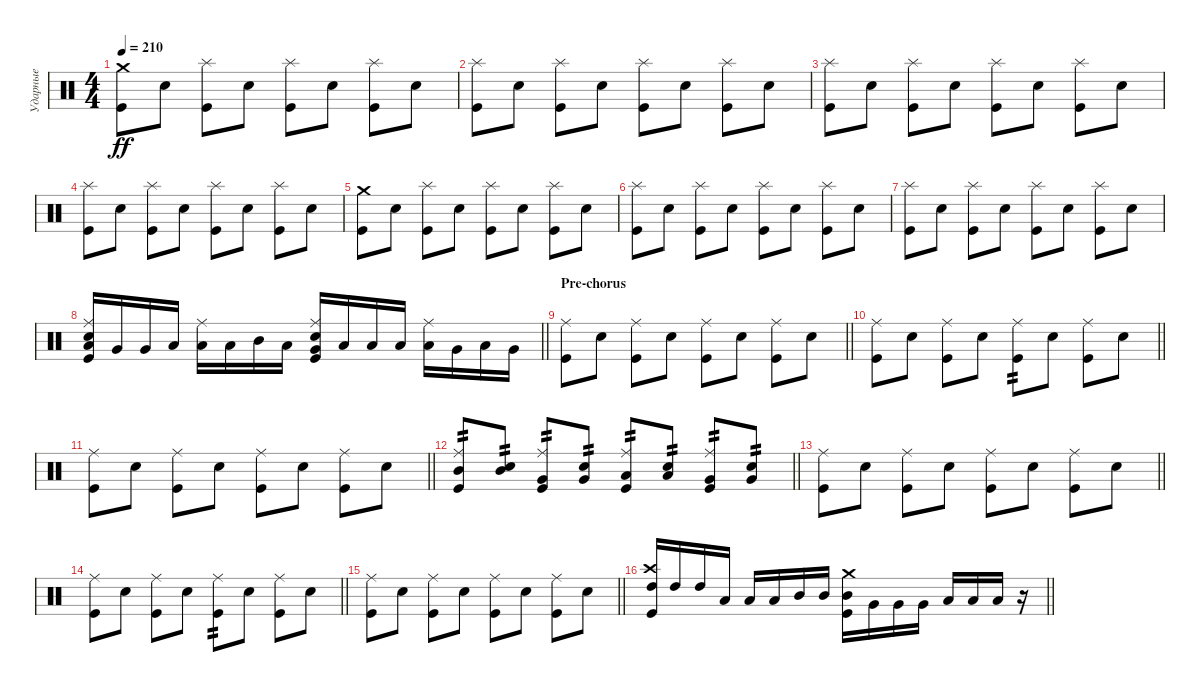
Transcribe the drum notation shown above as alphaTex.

\track ("Ударные" "Ударные") {instrument percussion}
\staff {score}
\articulation defaults
\ts (4 4)
\tempo 210
\clef neutral
\ks c
("Crash medium (hit)" "Kick (hit)").8{dy ff} "Electric Snare (hit)".8 ("Splash (hit)" "Kick (hit)").8 "Electric Snare (hit)".8 ("Splash (hit)" "Kick (hit)").8 "Electric Snare (hit)".8 ("Splash (hit)" "Kick (hit)").8 "Electric Snare (hit)".8 |
("Splash (hit)" "Kick (hit)").8 "Electric Snare (hit)".8 ("Splash (hit)" "Kick (hit)").8 "Electric Snare (hit)".8 ("Splash (hit)" "Kick (hit)").8 "Electric Snare (hit)".8 ("Splash (hit)" "Kick (hit)").8 "Electric Snare (hit)".8 |
("Splash (hit)" "Kick (hit)").8 "Electric Snare (hit)".8 ("Splash (hit)" "Kick (hit)").8 "Electric Snare (hit)".8 ("Splash (hit)" "Kick (hit)").8 "Electric Snare (hit)".8 ("Splash (hit)" "Kick (hit)").8 "Electric Snare (hit)".8 |
("Splash (hit)" "Kick (hit)").8 "Electric Snare (hit)".8 ("Splash (hit)" "Kick (hit)").8 "Electric Snare (hit)".8 ("Splash (hit)" "Kick (hit)").8 "Electric Snare (hit)".8 ("Splash (hit)" "Kick (hit)").8 "Electric Snare (hit)".8 |
("Crash medium (hit)" "Kick (hit)").8 "Electric Snare (hit)".8 ("Splash (hit)" "Kick (hit)").8 "Electric Snare (hit)".8 ("Splash (hit)" "Kick (hit)").8 "Electric Snare (hit)".8 ("Splash (hit)" "Kick (hit)").8 "Electric Snare (hit)".8 |
("Splash (hit)" "Kick (hit)").8 "Electric Snare (hit)".8 ("Splash (hit)" "Kick (hit)").8 "Electric Snare (hit)".8 ("Splash (hit)" "Kick (hit)").8 "Electric Snare (hit)".8 ("Splash (hit)" "Kick (hit)").8 "Electric Snare (hit)".8 |
("Splash (hit)" "Kick (hit)").8 "Electric Snare (hit)".8 ("Splash (hit)" "Kick (hit)").8 "Electric Snare (hit)".8 ("Splash (hit)" "Kick (hit)").8 "Electric Snare (hit)".8 ("Splash (hit)" "Kick (hit)").8 "Electric Snare (hit)".8 |
\barLineRight lightlight
("Ride (middle)" "Electric Snare (hit)" "Low Tom (hit)" "Kick (hit)").16 "Very Low Tom (hit)".16 "Very Low Tom (hit)".16 "Low Floor Tom (hit)".16 ("Ride (middle)" "Low Floor Tom (hit)").16 "Low Floor Tom (hit)".16 "Mid Tom (hit)".16 "Low Tom (hit)".16 ("Ride (middle)" "Electric Snare (hit)" "Very Low Tom (hit)" "Kick (hit)").16 "Low Floor Tom (hit)".16 "Low Floor Tom (hit)".16 "Low Floor Tom (hit)".16 ("Ride (middle)" "Low Tom (hit)").16 "Very Low Tom (hit)".16 "Low Floor Tom (hit)".16 "Very Low Tom (hit)".16 |
\section ("" "Pre-chorus")
\barLineRight lightlight
("Ride (middle)" "Kick (hit)").8 "Electric Snare (hit)".8 ("Ride (middle)" "Kick (hit)").8 "Electric Snare (hit)".8 ("Ride (middle)" "Kick (hit)").8 "Electric Snare (hit)".8 ("Ride (middle)" "Kick (hit)").8 "Electric Snare (hit)".8 |
\barLineRight lightlight
("Ride (middle)" "Kick (hit)").8 "Electric Snare (hit)".8 ("Ride (middle)" "Kick (hit)").8 "Electric Snare (hit)".8 ("Ride (middle)" "Kick (hit)").8{tp 2} "Electric Snare (hit)".8 ("Ride (middle)" "Kick (hit)").8 "Electric Snare (hit)".8 |
\barLineRight lightlight
("Ride (middle)" "Kick (hit)").8 "Electric Snare (hit)".8 ("Ride (middle)" "Kick (hit)").8 "Electric Snare (hit)".8 ("Ride (middle)" "Kick (hit)").8 "Electric Snare (hit)".8 ("Ride (middle)" "Kick (hit)").8 "Electric Snare (hit)".8 |
\barLineRight lightlight
("Ride (middle)" "Mid Tom (hit)" "Kick (hit)").8{tp 2} ("Mid Tom (hit)" "Electric Snare (hit)").8{tp 2} ("Ride (middle)" "Very Low Tom (hit)" "Kick (hit)").8{tp 2} ("Very Low Tom (hit)" "Electric Snare (hit)").8{tp 2} ("Ride (middle)" "Low Tom (hit)" "Kick (hit)").8{tp 2} ("Low Tom (hit)" "Electric Snare (hit)").8{tp 2} ("Ride (middle)" "Very Low Tom (hit)" "Kick (hit)").8{tp 2} ("Very Low Tom (hit)" "Electric Snare (hit)").8{tp 2} |
\barLineRight lightlight
("Ride (middle)" "Kick (hit)").8 "Electric Snare (hit)".8 ("Ride (middle)" "Kick (hit)").8 "Electric Snare (hit)".8 ("Ride (middle)" "Kick (hit)").8 "Electric Snare (hit)".8 ("Ride (middle)" "Kick (hit)").8 "Electric Snare (hit)".8 |
\barLineRight lightlight
("Ride (middle)" "Kick (hit)").8 "Electric Snare (hit)".8 ("Ride (middle)" "Kick (hit)").8 "Electric Snare (hit)".8 ("Ride (middle)" "Kick (hit)").8{tp 2} "Electric Snare (hit)".8 ("Ride (middle)" "Kick (hit)").8 "Electric Snare (hit)".8 |
\barLineRight lightlight
("Ride (middle)" "Kick (hit)").8 "Electric Snare (hit)".8 ("Ride (middle)" "Kick (hit)").8 "Electric Snare (hit)".8 ("Ride (middle)" "Kick (hit)").8 "Electric Snare (hit)".8 ("Ride (middle)" "Kick (hit)").8 "Electric Snare (hit)".8 |
\barLineRight lightlight
("Crash high (hit)" "High Tom (hit)" "Kick (hit)").16 "High Tom (hit)".16 "High Tom (hit)".16 "Low Tom (hit)".16 "Low Tom (hit)".16 "Low Tom (hit)".16 "Mid Tom (hit)".16 "Mid Tom (hit)".16 ("Crash medium (hit)" "Mid Tom (hit)" "Kick (hit)").16 "Very Low Tom (hit)".16 "Very Low Tom (hit)".16 "Very Low Tom (hit)".16 "Low Floor Tom (hit)".16 "Low Floor Tom (hit)".16 "Low Floor Tom (hit)".16 r.16
